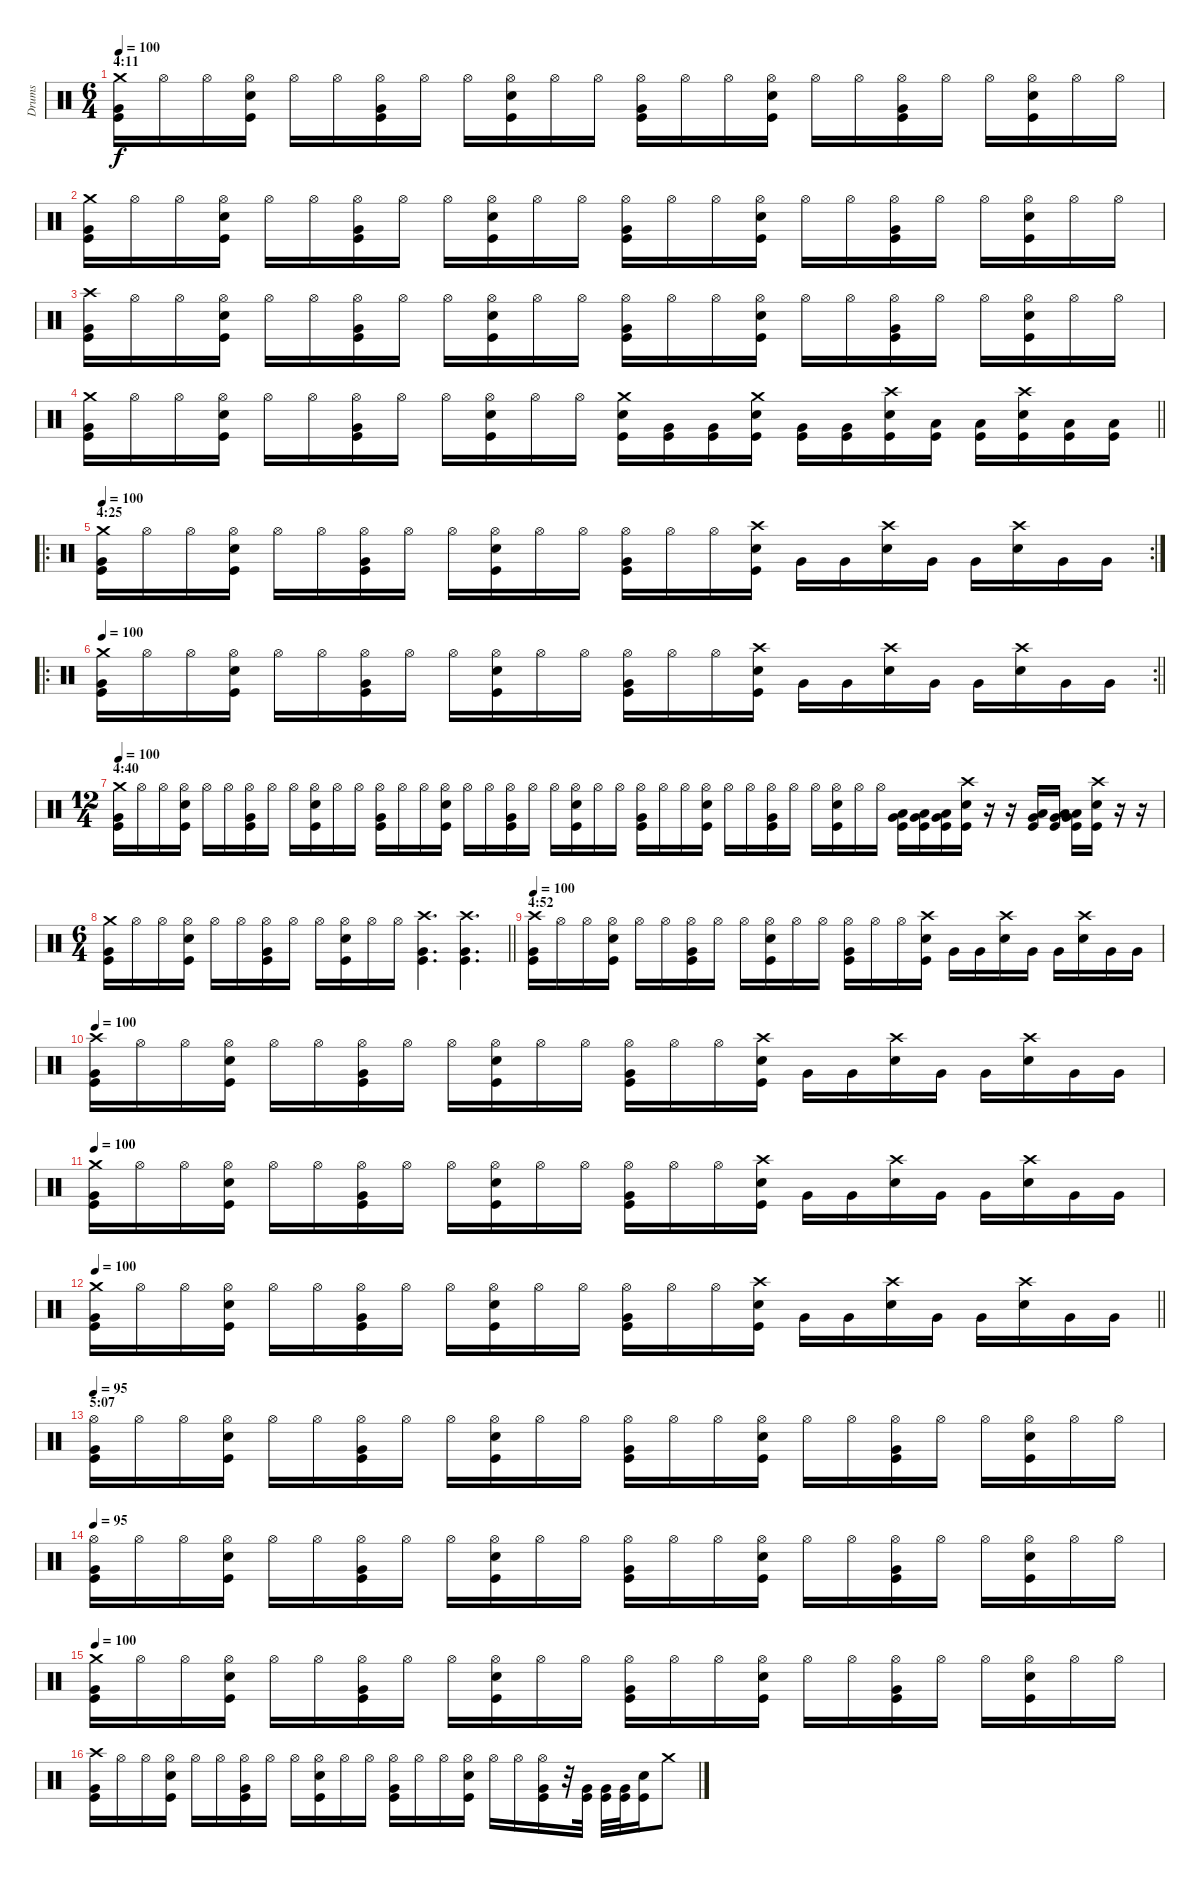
\track ("Drums" "Drums") {instrument percussion}
\staff {score}
\articulation defaults
\ts (6 4)
\section ("" "4:11")
\tempo 100
\clef neutral
\ks c
("Crash medium (hit)" "Very Low Tom (hit)" "Kick (hit)").16{dy f} "Hi-Hat (open)".16 "Hi-Hat (open)".16 ("Hi-Hat (open)" "Snare (hit) 2" "Kick (hit)").16 "Hi-Hat (open)".16 "Hi-Hat (open)".16 ("Hi-Hat (open)" "Very Low Tom (hit)" "Kick (hit)").16 "Hi-Hat (open)".16 "Hi-Hat (open)".16 ("Hi-Hat (open)" "Snare (hit) 2" "Kick (hit)").16 "Hi-Hat (open)".16 "Hi-Hat (open)".16 ("Hi-Hat (open)" "Very Low Tom (hit)" "Kick (hit)").16 "Hi-Hat (open)".16 "Hi-Hat (open)".16 ("Hi-Hat (open)" "Snare (hit) 2" "Kick (hit)").16 "Hi-Hat (open)".16 "Hi-Hat (open)".16 ("Hi-Hat (open)" "Very Low Tom (hit)" "Kick (hit)").16 "Hi-Hat (open)".16 "Hi-Hat (open)".16 ("Hi-Hat (open)" "Snare (hit) 2" "Kick (hit)").16 "Hi-Hat (open)".16 "Hi-Hat (open)".16 |
("Crash medium (hit)" "Very Low Tom (hit)" "Kick (hit)").16 "Hi-Hat (open)".16 "Hi-Hat (open)".16 ("Hi-Hat (open)" "Snare (hit) 2" "Kick (hit)").16 "Hi-Hat (open)".16 "Hi-Hat (open)".16 ("Hi-Hat (open)" "Very Low Tom (hit)" "Kick (hit)").16 "Hi-Hat (open)".16 "Hi-Hat (open)".16 ("Hi-Hat (open)" "Snare (hit) 2" "Kick (hit)").16 "Hi-Hat (open)".16 "Hi-Hat (open)".16 ("Hi-Hat (open)" "Very Low Tom (hit)" "Kick (hit)").16 "Hi-Hat (open)".16 "Hi-Hat (open)".16 ("Hi-Hat (open)" "Snare (hit) 2" "Kick (hit)").16 "Hi-Hat (open)".16 "Hi-Hat (open)".16 ("Hi-Hat (open)" "Very Low Tom (hit)" "Kick (hit)").16 "Hi-Hat (open)".16 "Hi-Hat (open)".16 ("Hi-Hat (open)" "Snare (hit) 2" "Kick (hit)").16 "Hi-Hat (open)".16 "Hi-Hat (open)".16 |
("Crash high (hit)" "Very Low Tom (hit)" "Kick (hit)").16 "Hi-Hat (open)".16 "Hi-Hat (open)".16 ("Hi-Hat (open)" "Snare (hit) 2" "Kick (hit)").16 "Hi-Hat (open)".16 "Hi-Hat (open)".16 ("Hi-Hat (open)" "Very Low Tom (hit)" "Kick (hit)").16 "Hi-Hat (open)".16 "Hi-Hat (open)".16 ("Hi-Hat (open)" "Snare (hit) 2" "Kick (hit)").16 "Hi-Hat (open)".16 "Hi-Hat (open)".16 ("Hi-Hat (open)" "Very Low Tom (hit)" "Kick (hit)").16 "Hi-Hat (open)".16 "Hi-Hat (open)".16 ("Hi-Hat (open)" "Snare (hit) 2" "Kick (hit)").16 "Hi-Hat (open)".16 "Hi-Hat (open)".16 ("Hi-Hat (open)" "Very Low Tom (hit)" "Kick (hit)").16 "Hi-Hat (open)".16 "Hi-Hat (open)".16 ("Hi-Hat (open)" "Snare (hit) 2" "Kick (hit)").16 "Hi-Hat (open)".16 "Hi-Hat (open)".16 |
\barLineRight lightlight
("Crash medium (hit)" "Very Low Tom (hit)" "Kick (hit)").16 "Hi-Hat (open)".16 "Hi-Hat (open)".16 ("Hi-Hat (open)" "Snare (hit) 2" "Kick (hit)").16 "Hi-Hat (open)".16 "Hi-Hat (open)".16 ("Hi-Hat (open)" "Very Low Tom (hit)" "Kick (hit)").16 "Hi-Hat (open)".16 "Hi-Hat (open)".16 ("Hi-Hat (open)" "Snare (hit) 2" "Kick (hit)").16 "Hi-Hat (open)".16 "Hi-Hat (open)".16 ("Crash medium (hit)" "Snare (hit) 2" "Kick (hit)").16 ("Very Low Tom (hit)" "Kick (hit)").16 ("Very Low Tom (hit)" "Kick (hit)").16 ("Crash medium (hit)" "Snare (hit) 2" "Kick (hit)").16 ("Very Low Tom (hit)" "Kick (hit)").16 ("Very Low Tom (hit)" "Kick (hit)").16 ("Crash high (hit)" "Snare (hit) 2" "Kick (hit)").16 ("Low Tom (hit)" "Kick (hit)").16 ("Low Tom (hit)" "Kick (hit)").16 ("Crash high (hit)" "Snare (hit) 2" "Kick (hit)").16 ("Low Tom (hit)" "Kick (hit)").16 ("Low Tom (hit)" "Kick (hit)").16 |
\ro
\rc 2
\section ("" "4:25")
\tempo 100
("Crash medium (hit)" "Very Low Tom (hit)" "Kick (hit)").16 "Hi-Hat (open)".16 "Hi-Hat (open)".16 ("Hi-Hat (open)" "Snare (hit) 2" "Kick (hit)").16 "Hi-Hat (open)".16 "Hi-Hat (open)".16 ("Hi-Hat (open)" "Very Low Tom (hit)" "Kick (hit)").16 "Hi-Hat (open)".16 "Hi-Hat (open)".16 ("Hi-Hat (open)" "Snare (hit) 2" "Kick (hit)").16 "Hi-Hat (open)".16 "Hi-Hat (open)".16 ("Hi-Hat (open)" "Very Low Tom (hit)" "Kick (hit)").16 "Hi-Hat (open)".16 "Hi-Hat (open)".16 ("Crash high (hit)" "Snare (hit) 2" "Kick (hit)").16 "Very Low Tom (hit)".16 "Very Low Tom (hit)".16 ("Crash high (hit)" "Snare (hit) 2").16 "Very Low Tom (hit)".16 "Very Low Tom (hit)".16 ("Crash high (hit)" "Snare (hit) 2").16 "Very Low Tom (hit)".16 "Very Low Tom (hit)".16 |
\ro
\rc 2
\tempo 100
\barLineRight lightlight
("Crash medium (hit)" "Very Low Tom (hit)" "Kick (hit)").16 "Hi-Hat (open)".16 "Hi-Hat (open)".16 ("Hi-Hat (open)" "Snare (hit) 2" "Kick (hit)").16 "Hi-Hat (open)".16 "Hi-Hat (open)".16 ("Hi-Hat (open)" "Very Low Tom (hit)" "Kick (hit)").16 "Hi-Hat (open)".16 "Hi-Hat (open)".16 ("Hi-Hat (open)" "Snare (hit) 2" "Kick (hit)").16 "Hi-Hat (open)".16 "Hi-Hat (open)".16 ("Hi-Hat (open)" "Very Low Tom (hit)" "Kick (hit)").16 "Hi-Hat (open)".16 "Hi-Hat (open)".16 ("Crash high (hit)" "Snare (hit) 2" "Kick (hit)").16 "Very Low Tom (hit)".16 "Very Low Tom (hit)".16 ("Crash high (hit)" "Snare (hit) 2").16 "Very Low Tom (hit)".16 "Very Low Tom (hit)".16 ("Crash high (hit)" "Snare (hit) 2").16 "Very Low Tom (hit)".16 "Very Low Tom (hit)".16 |
\ts (12 4)
\section ("" "4:40")
\tempo 100
("Crash medium (hit)" "Very Low Tom (hit)" "Kick (hit)").16 "Hi-Hat (open)".16 "Hi-Hat (open)".16 ("Hi-Hat (open)" "Snare (hit) 2" "Kick (hit)").16 "Hi-Hat (open)".16 "Hi-Hat (open)".16 ("Hi-Hat (open)" "Very Low Tom (hit)" "Kick (hit)").16 "Hi-Hat (open)".16 "Hi-Hat (open)".16 ("Hi-Hat (open)" "Snare (hit) 2" "Kick (hit)").16 "Hi-Hat (open)".16 "Hi-Hat (open)".16 ("Hi-Hat (open)" "Very Low Tom (hit)" "Kick (hit)").16 "Hi-Hat (open)".16 "Hi-Hat (open)".16 ("Hi-Hat (open)" "Snare (hit) 2" "Kick (hit)").16 "Hi-Hat (open)".16 "Hi-Hat (open)".16 ("Hi-Hat (open)" "Very Low Tom (hit)" "Kick (hit)").16 "Hi-Hat (open)".16 "Hi-Hat (open)".16 ("Hi-Hat (open)" "Snare (hit) 2" "Kick (hit)").16 "Hi-Hat (open)".16 "Hi-Hat (open)".16 ("Hi-Hat (open)" "Very Low Tom (hit)" "Kick (hit)").16 "Hi-Hat (open)".16 "Hi-Hat (open)".16 ("Hi-Hat (open)" "Snare (hit) 2" "Kick (hit)").16 "Hi-Hat (open)".16 "Hi-Hat (open)".16 ("Hi-Hat (open)" "Very Low Tom (hit)" "Kick (hit)").16 "Hi-Hat (open)".16 "Hi-Hat (open)".16 ("Hi-Hat (open)" "Snare (hit) 2" "Kick (hit)").16 "Hi-Hat (open)".16 "Hi-Hat (open)".16 ("Very Low Tom (hit)" "Low Tom (hit)" "Kick (hit)").16 ("Very Low Tom (hit)" "Low Tom (hit)" "Kick (hit)").16 ("Very Low Tom (hit)" "Low Tom (hit)" "Kick (hit)").16 ("Crash high (hit)" "Snare (hit) 2" "Kick (hit)").16 r.16 r.16 ("Very Low Tom (hit)" "Low Tom (hit)" "Kick (hit)").16 ("Very Low Tom (hit)" "Low Tom (hit)" "Kick (hit)").16 ("Very Low Tom (hit)" "Low Tom (hit)" "Kick (hit)").16 ("Crash high (hit)" "Snare (hit) 2" "Kick (hit)").16 r.16 r.16 |
\ts (6 4)
\barLineRight lightlight
("Crash medium (hit)" "Very Low Tom (hit)" "Kick (hit)").16 "Hi-Hat (open)".16 "Hi-Hat (open)".16 ("Hi-Hat (open)" "Snare (hit) 2" "Kick (hit)").16 "Hi-Hat (open)".16 "Hi-Hat (open)".16 ("Hi-Hat (open)" "Very Low Tom (hit)" "Kick (hit)").16 "Hi-Hat (open)".16 "Hi-Hat (open)".16 ("Hi-Hat (open)" "Snare (hit) 2" "Kick (hit)").16 "Hi-Hat (open)".16 "Hi-Hat (open)".16 ("Crash high (hit)" "Very Low Tom (hit)" "Kick (hit)").4{d} ("Crash high (hit)" "Very Low Tom (hit)" "Kick (hit)").4{d} |
\section ("" "4:52")
\tempo 100
("Crash high (hit)" "Very Low Tom (hit)" "Kick (hit)").16 "Hi-Hat (open)".16 "Hi-Hat (open)".16 ("Hi-Hat (open)" "Snare (hit) 2" "Kick (hit)").16 "Hi-Hat (open)".16 "Hi-Hat (open)".16 ("Hi-Hat (open)" "Very Low Tom (hit)" "Kick (hit)").16 "Hi-Hat (open)".16 "Hi-Hat (open)".16 ("Hi-Hat (open)" "Snare (hit) 2" "Kick (hit)").16 "Hi-Hat (open)".16 "Hi-Hat (open)".16 ("Hi-Hat (open)" "Very Low Tom (hit)" "Kick (hit)").16 "Hi-Hat (open)".16 "Hi-Hat (open)".16 ("Crash high (hit)" "Snare (hit) 2" "Kick (hit)").16 "Very Low Tom (hit)".16 "Very Low Tom (hit)".16 ("Crash high (hit)" "Snare (hit) 2").16 "Very Low Tom (hit)".16 "Very Low Tom (hit)".16 ("Crash high (hit)" "Snare (hit) 2").16 "Very Low Tom (hit)".16 "Very Low Tom (hit)".16 |
\tempo 100
("Crash high (hit)" "Very Low Tom (hit)" "Kick (hit)").16 "Hi-Hat (open)".16 "Hi-Hat (open)".16 ("Hi-Hat (open)" "Snare (hit) 2" "Kick (hit)").16 "Hi-Hat (open)".16 "Hi-Hat (open)".16 ("Hi-Hat (open)" "Very Low Tom (hit)" "Kick (hit)").16 "Hi-Hat (open)".16 "Hi-Hat (open)".16 ("Hi-Hat (open)" "Snare (hit) 2" "Kick (hit)").16 "Hi-Hat (open)".16 "Hi-Hat (open)".16 ("Hi-Hat (open)" "Very Low Tom (hit)" "Kick (hit)").16 "Hi-Hat (open)".16 "Hi-Hat (open)".16 ("Crash high (hit)" "Snare (hit) 2" "Kick (hit)").16 "Very Low Tom (hit)".16 "Very Low Tom (hit)".16 ("Crash high (hit)" "Snare (hit) 2").16 "Very Low Tom (hit)".16 "Very Low Tom (hit)".16 ("Crash high (hit)" "Snare (hit) 2").16 "Very Low Tom (hit)".16 "Very Low Tom (hit)".16 |
\tempo 100
("Crash medium (hit)" "Very Low Tom (hit)" "Kick (hit)").16 "Hi-Hat (open)".16 "Hi-Hat (open)".16 ("Hi-Hat (open)" "Snare (hit) 2" "Kick (hit)").16 "Hi-Hat (open)".16 "Hi-Hat (open)".16 ("Hi-Hat (open)" "Very Low Tom (hit)" "Kick (hit)").16 "Hi-Hat (open)".16 "Hi-Hat (open)".16 ("Hi-Hat (open)" "Snare (hit) 2" "Kick (hit)").16 "Hi-Hat (open)".16 "Hi-Hat (open)".16 ("Hi-Hat (open)" "Very Low Tom (hit)" "Kick (hit)").16 "Hi-Hat (open)".16 "Hi-Hat (open)".16 ("Crash high (hit)" "Snare (hit) 2" "Kick (hit)").16 "Very Low Tom (hit)".16 "Very Low Tom (hit)".16 ("Crash high (hit)" "Snare (hit) 2").16 "Very Low Tom (hit)".16 "Very Low Tom (hit)".16 ("Crash high (hit)" "Snare (hit) 2").16 "Very Low Tom (hit)".16 "Very Low Tom (hit)".16 |
\tempo 100
\barLineRight lightlight
("Crash medium (hit)" "Very Low Tom (hit)" "Kick (hit)").16 "Hi-Hat (open)".16 "Hi-Hat (open)".16 ("Hi-Hat (open)" "Snare (hit) 2" "Kick (hit)").16 "Hi-Hat (open)".16 "Hi-Hat (open)".16 ("Hi-Hat (open)" "Very Low Tom (hit)" "Kick (hit)").16 "Hi-Hat (open)".16 "Hi-Hat (open)".16 ("Hi-Hat (open)" "Snare (hit) 2" "Kick (hit)").16 "Hi-Hat (open)".16 "Hi-Hat (open)".16 ("Hi-Hat (open)" "Very Low Tom (hit)" "Kick (hit)").16 "Hi-Hat (open)".16 "Hi-Hat (open)".16 ("Crash high (hit)" "Snare (hit) 2" "Kick (hit)").16 "Very Low Tom (hit)".16 "Very Low Tom (hit)".16 ("Crash high (hit)" "Snare (hit) 2").16 "Very Low Tom (hit)".16 "Very Low Tom (hit)".16 ("Crash high (hit)" "Snare (hit) 2").16 "Very Low Tom (hit)".16 "Very Low Tom (hit)".16 |
\section ("" "5:07")
\tempo 95
("Hi-Hat (open)" "Very Low Tom (hit)" "Kick (hit)").16 "Hi-Hat (open)".16 "Hi-Hat (open)".16 ("Hi-Hat (open)" "Snare (hit) 2" "Kick (hit)").16 "Hi-Hat (open)".16 "Hi-Hat (open)".16 ("Hi-Hat (open)" "Very Low Tom (hit)" "Kick (hit)").16 "Hi-Hat (open)".16 "Hi-Hat (open)".16 ("Hi-Hat (open)" "Snare (hit) 2" "Kick (hit)").16 "Hi-Hat (open)".16 "Hi-Hat (open)".16 ("Hi-Hat (open)" "Very Low Tom (hit)" "Kick (hit)").16 "Hi-Hat (open)".16 "Hi-Hat (open)".16 ("Hi-Hat (open)" "Snare (hit) 2" "Kick (hit)").16 "Hi-Hat (open)".16 "Hi-Hat (open)".16 ("Hi-Hat (open)" "Very Low Tom (hit)" "Kick (hit)").16 "Hi-Hat (open)".16 "Hi-Hat (open)".16 ("Hi-Hat (open)" "Snare (hit) 2" "Kick (hit)").16 "Hi-Hat (open)".16 "Hi-Hat (open)".16 |
\tempo 95
("Hi-Hat (open)" "Very Low Tom (hit)" "Kick (hit)").16 "Hi-Hat (open)".16 "Hi-Hat (open)".16 ("Hi-Hat (open)" "Snare (hit) 2" "Kick (hit)").16 "Hi-Hat (open)".16 "Hi-Hat (open)".16 ("Hi-Hat (open)" "Very Low Tom (hit)" "Kick (hit)").16 "Hi-Hat (open)".16 "Hi-Hat (open)".16 ("Hi-Hat (open)" "Snare (hit) 2" "Kick (hit)").16 "Hi-Hat (open)".16 "Hi-Hat (open)".16 ("Hi-Hat (open)" "Very Low Tom (hit)" "Kick (hit)").16 "Hi-Hat (open)".16 "Hi-Hat (open)".16 ("Hi-Hat (open)" "Snare (hit) 2" "Kick (hit)").16 "Hi-Hat (open)".16 "Hi-Hat (open)".16 ("Hi-Hat (open)" "Very Low Tom (hit)" "Kick (hit)").16 "Hi-Hat (open)".16 "Hi-Hat (open)".16 ("Hi-Hat (open)" "Snare (hit) 2" "Kick (hit)").16 "Hi-Hat (open)".16 "Hi-Hat (open)".16 |
\tempo 100
("Crash medium (hit)" "Very Low Tom (hit)" "Kick (hit)").16 "Hi-Hat (open)".16 "Hi-Hat (open)".16 ("Hi-Hat (open)" "Snare (hit) 2" "Kick (hit)").16 "Hi-Hat (open)".16 "Hi-Hat (open)".16 ("Hi-Hat (open)" "Very Low Tom (hit)" "Kick (hit)").16 "Hi-Hat (open)".16 "Hi-Hat (open)".16 ("Hi-Hat (open)" "Snare (hit) 2" "Kick (hit)").16 "Hi-Hat (open)".16 "Hi-Hat (open)".16 ("Hi-Hat (open)" "Very Low Tom (hit)" "Kick (hit)").16 "Hi-Hat (open)".16 "Hi-Hat (open)".16 ("Hi-Hat (open)" "Snare (hit) 2" "Kick (hit)").16 "Hi-Hat (open)".16 "Hi-Hat (open)".16 ("Hi-Hat (open)" "Very Low Tom (hit)" "Kick (hit)").16 "Hi-Hat (open)".16 "Hi-Hat (open)".16 ("Hi-Hat (open)" "Snare (hit) 2" "Kick (hit)").16 "Hi-Hat (open)".16 "Hi-Hat (open)".16 |
("Crash high (hit)" "Very Low Tom (hit)" "Kick (hit)").16 "Hi-Hat (open)".16 "Hi-Hat (open)".16 ("Hi-Hat (open)" "Snare (hit) 2" "Kick (hit)").16 "Hi-Hat (open)".16 "Hi-Hat (open)".16 ("Hi-Hat (open)" "Very Low Tom (hit)" "Kick (hit)").16 "Hi-Hat (open)".16 "Hi-Hat (open)".16 ("Hi-Hat (open)" "Snare (hit) 2" "Kick (hit)").16 "Hi-Hat (open)".16 "Hi-Hat (open)".16 ("Hi-Hat (open)" "Very Low Tom (hit)" "Kick (hit)").16 "Hi-Hat (open)".16 "Hi-Hat (open)".16 ("Hi-Hat (open)" "Snare (hit) 2" "Kick (hit)").16 "Hi-Hat (open)".16 "Hi-Hat (open)".16 ("Hi-Hat (open)" "Very Low Tom (hit)" "Kick (hit)").16 r.32 ("Very Low Tom (hit)" "Kick (hit)").32 ("Very Low Tom (hit)" "Kick (hit)").32 ("Very Low Tom (hit)" "Kick (hit)").32 ("Snare (hit) 2" "Kick (hit)").16 "Crash medium (hit)".8
